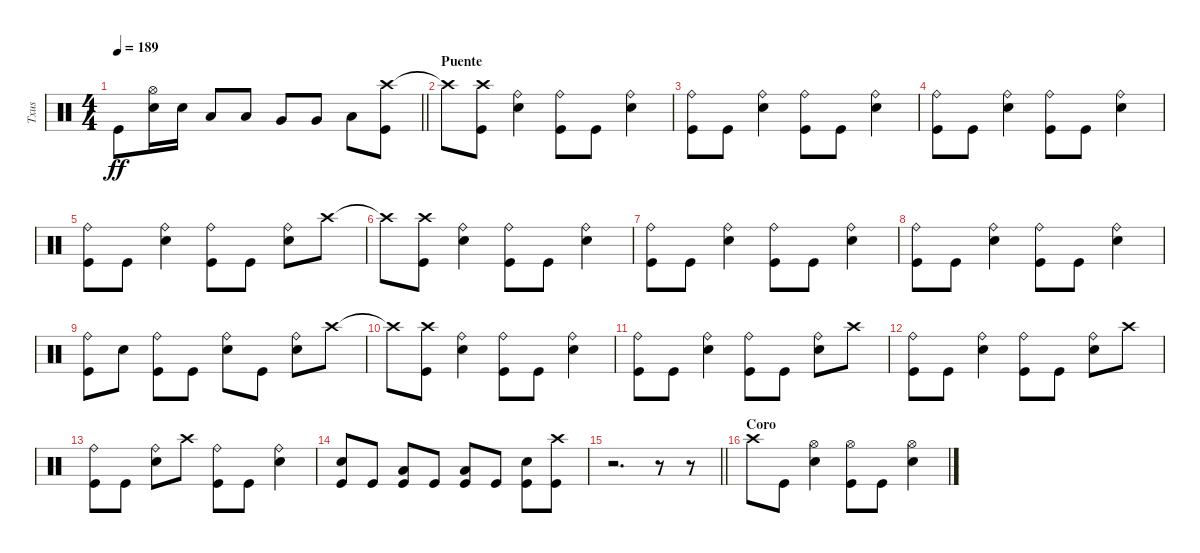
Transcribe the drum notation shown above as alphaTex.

\track ("Txus" "Txus") {instrument percussion}
\staff {score}
\articulation defaults
\ts (4 4)
\tempo 189
\clef neutral
\barLineRight lightlight
\ks c "Kick (hit)".8{dy ff}
("Snare (hit) 2" "Hi-Hat (open)").16 "Snare (hit) 2".16 "Low Tom (hit)".8 "Low Tom (hit)".8 "Very Low Tom (hit)".8 "Very Low Tom (hit)".8 "Low Floor Tom (hit)".8 ("Crash high (hit)" "Kick (hit)").8 |
\section ("" "Puente")
"Crash high (hit)"{t}.8 ("Kick (hit)" "Crash high (hit)").8 ("Ride (bell)" "Snare (hit) 2").4 ("Ride (bell)" "Kick (hit)").8 "Kick (hit)".8 ("Ride (bell)" "Snare (hit) 2").4 |
("Kick (hit)" "Ride (bell)").8 "Kick (hit)".8 ("Ride (bell)" "Snare (hit) 2").4 ("Ride (bell)" "Kick (hit)").8 "Kick (hit)".8 ("Ride (bell)" "Snare (hit) 2").4 |
("Kick (hit)" "Ride (bell)").8 "Kick (hit)".8 ("Ride (bell)" "Snare (hit) 2").4 ("Ride (bell)" "Kick (hit)").8 "Kick (hit)".8 ("Ride (bell)" "Snare (hit) 2").4 |
("Kick (hit)" "Ride (bell)").8 "Kick (hit)".8 ("Ride (bell)" "Snare (hit) 2").4 ("Ride (bell)" "Kick (hit)").8 "Kick (hit)".8 ("Ride (bell)" "Snare (hit) 2").8 "Crash high (hit)".8 |
"Crash high (hit)"{t}.8 ("Kick (hit)" "Crash high (hit)").8 ("Ride (bell)" "Snare (hit) 2").4 ("Ride (bell)" "Kick (hit)").8 "Kick (hit)".8 ("Ride (bell)" "Snare (hit) 2").4 |
("Kick (hit)" "Ride (bell)").8 "Kick (hit)".8 ("Ride (bell)" "Snare (hit) 2").4 ("Ride (bell)" "Kick (hit)").8 "Kick (hit)".8 ("Ride (bell)" "Snare (hit) 2").4 |
("Kick (hit)" "Ride (bell)").8 "Kick (hit)".8 ("Ride (bell)" "Snare (hit) 2").4 ("Ride (bell)" "Kick (hit)").8 "Kick (hit)".8 ("Ride (bell)" "Snare (hit) 2").4 |
("Kick (hit)" "Ride (bell)").8 "Snare (hit) 2".8 ("Ride (bell)" "Kick (hit)").8 "Kick (hit)".8 ("Ride (bell)" "Snare (hit) 2").8 "Kick (hit)".8 ("Ride (bell)" "Snare (hit) 2").8 "Crash high (hit)".8 |
"Crash high (hit)"{t}.8 ("Kick (hit)" "Crash high (hit)").8 ("Ride (bell)" "Snare (hit) 2").4 ("Ride (bell)" "Kick (hit)").8 "Kick (hit)".8 ("Ride (bell)" "Snare (hit) 2").4 |
("Kick (hit)" "Ride (bell)").8 "Kick (hit)".8 ("Ride (bell)" "Snare (hit) 2").4 ("Ride (bell)" "Kick (hit)").8 "Kick (hit)".8 ("Ride (bell)" "Snare (hit) 2").8 "Crash high (hit)".8 |
("Kick (hit)" "Ride (bell)").8 "Kick (hit)".8 ("Ride (bell)" "Snare (hit) 2").4 ("Ride (bell)" "Kick (hit)").8 "Kick (hit)".8 ("Ride (bell)" "Snare (hit) 2").8 "Crash high (hit)".8 |
("Kick (hit)" "Ride (bell)").8 "Kick (hit)".8 ("Ride (bell)" "Snare (hit) 2").8 "Crash high (hit)".8 ("Ride (bell)" "Kick (hit)").8 "Kick (hit)".8 ("Ride (bell)" "Snare (hit) 2").4 |
("Snare (hit) 2" "Kick (hit)").8 "Kick (hit)".8 ("Kick (hit)" "Low Tom (hit)").8 "Kick (hit)".8 ("Kick (hit)" "Low Tom (hit)").8 "Kick (hit)".8 ("Kick (hit)" "Snare (hit) 2").8 ("Kick (hit)" "Crash high (hit)").8 |
\barLineRight lightlight
r.2{d} r.8 r.8 |
\section ("" "Coro")
"Crash high (hit)".8 "Kick (hit)".8 ("Snare (hit) 2" "Hi-Hat (open)").4 ("Kick (hit)" "Hi-Hat (open)").8 "Kick (hit)".8 ("Snare (hit) 2" "Hi-Hat (open)").4
